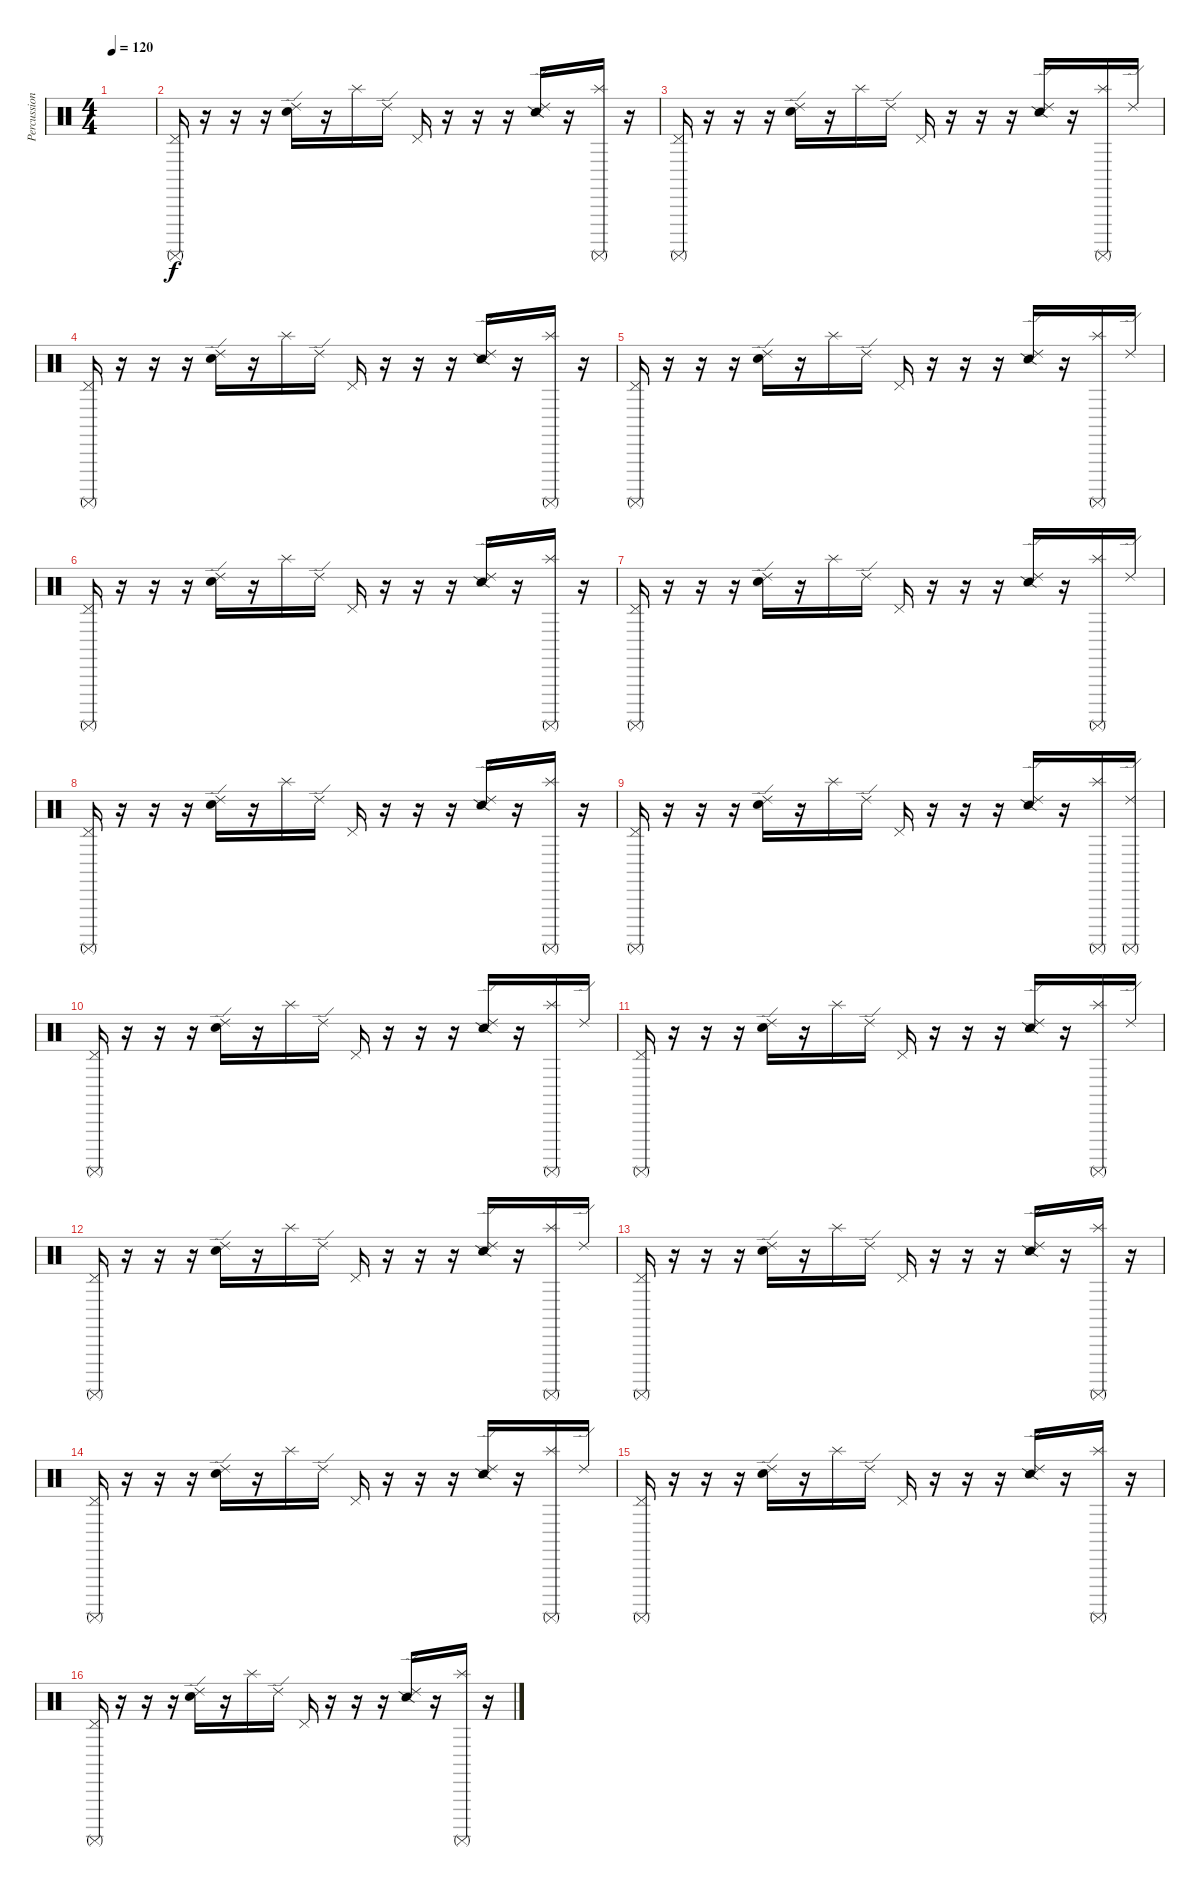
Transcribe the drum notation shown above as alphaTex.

\track ("Percussions" "Percussion") {instrument percussion}
\staff {score}
\articulation defaults
\ts (4 4)
\tempo 120
\clef neutral
\ks c
|
("Surdo (mute)" "Pedal Hi-Hat (hit)").16 r.16 r.16 r.16 ("Metronome (bell)" "Ride (edge) 2").16 r.16 "Splash (hit)".16 "Ride (edge) 2".16 "Pedal Hi-Hat (hit)".16 r.16 r.16 r.16 ("Snare (side stick) 2" "Ride (edge) 2").16 r.16 ("Surdo (mute)" "Splash (hit)").16 r.16 |
("Surdo (mute)" "Pedal Hi-Hat (hit)").16 r.16 r.16 r.16 ("Metronome (bell)" "Ride (edge) 2").16 r.16 "Splash (hit)".16 "Ride (edge) 2".16 "Pedal Hi-Hat (hit)".16 r.16 r.16 r.16 ("Snare (side stick) 2" "Ride (edge) 2").16 r.16 ("Surdo (mute)" "Splash (hit)").16 "Ride (edge) 2".16 |
("Surdo (mute)" "Pedal Hi-Hat (hit)").16 r.16 r.16 r.16 ("Metronome (bell)" "Ride (edge) 2").16 r.16 "Splash (hit)".16 "Ride (edge) 2".16 "Pedal Hi-Hat (hit)".16 r.16 r.16 r.16 ("Snare (side stick) 2" "Ride (edge) 2").16 r.16 ("Surdo (mute)" "Splash (hit)").16 r.16 |
("Surdo (mute)" "Pedal Hi-Hat (hit)").16 r.16 r.16 r.16 ("Metronome (bell)" "Ride (edge) 2").16 r.16 "Splash (hit)".16 "Ride (edge) 2".16 "Pedal Hi-Hat (hit)".16 r.16 r.16 r.16 ("Snare (side stick) 2" "Ride (edge) 2").16 r.16 ("Surdo (mute)" "Splash (hit)").16 "Ride (edge) 2".16 |
("Surdo (mute)" "Pedal Hi-Hat (hit)").16 r.16 r.16 r.16 ("Metronome (bell)" "Ride (edge) 2").16 r.16 "Splash (hit)".16 "Ride (edge) 2".16 "Pedal Hi-Hat (hit)".16 r.16 r.16 r.16 ("Snare (side stick) 2" "Ride (edge) 2").16 r.16 ("Surdo (mute)" "Splash (hit)").16 r.16 |
("Surdo (mute)" "Pedal Hi-Hat (hit)").16 r.16 r.16 r.16 ("Metronome (bell)" "Ride (edge) 2").16 r.16 "Splash (hit)".16 "Ride (edge) 2".16 "Pedal Hi-Hat (hit)".16 r.16 r.16 r.16 ("Snare (side stick) 2" "Ride (edge) 2").16 r.16 ("Surdo (mute)" "Splash (hit)").16 "Ride (edge) 2".16 |
("Surdo (mute)" "Pedal Hi-Hat (hit)").16 r.16 r.16 r.16 ("Metronome (bell)" "Ride (edge) 2").16 r.16 "Splash (hit)".16 "Ride (edge) 2".16 "Pedal Hi-Hat (hit)".16 r.16 r.16 r.16 ("Snare (side stick) 2" "Ride (edge) 2").16 r.16 ("Surdo (mute)" "Splash (hit)").16 r.16 |
("Surdo (mute)" "Pedal Hi-Hat (hit)").16 r.16 r.16 r.16 ("Metronome (bell)" "Ride (edge) 2").16 r.16 "Splash (hit)".16 "Ride (edge) 2".16 "Pedal Hi-Hat (hit)".16 r.16 r.16 r.16 ("Snare (side stick) 2" "Ride (edge) 2").16 r.16 ("Surdo (mute)" "Splash (hit)").16 ("Surdo (mute)" "Ride (edge) 2").16 |
("Surdo (mute)" "Pedal Hi-Hat (hit)").16 r.16 r.16 r.16 ("Metronome (bell)" "Ride (edge) 2").16 r.16 "Splash (hit)".16 "Ride (edge) 2".16 "Pedal Hi-Hat (hit)".16 r.16 r.16 r.16 ("Snare (side stick) 2" "Ride (edge) 2").16 r.16 ("Surdo (mute)" "Splash (hit)").16 "Ride (edge) 2".16 |
("Surdo (mute)" "Pedal Hi-Hat (hit)").16 r.16 r.16 r.16 ("Metronome (bell)" "Ride (edge) 2").16 r.16 "Splash (hit)".16 "Ride (edge) 2".16 "Pedal Hi-Hat (hit)".16 r.16 r.16 r.16 ("Snare (side stick) 2" "Ride (edge) 2").16 r.16 ("Surdo (mute)" "Splash (hit)").16 "Ride (edge) 2".16 |
("Surdo (mute)" "Pedal Hi-Hat (hit)").16 r.16 r.16 r.16 ("Metronome (bell)" "Ride (edge) 2").16 r.16 "Splash (hit)".16 "Ride (edge) 2".16 "Pedal Hi-Hat (hit)".16 r.16 r.16 r.16 ("Snare (side stick) 2" "Ride (edge) 2").16 r.16 ("Surdo (mute)" "Splash (hit)").16 "Ride (edge) 2".16 |
("Surdo (mute)" "Pedal Hi-Hat (hit)").16 r.16 r.16 r.16 ("Metronome (bell)" "Ride (edge) 2").16 r.16 "Splash (hit)".16 "Ride (edge) 2".16 "Pedal Hi-Hat (hit)".16 r.16 r.16 r.16 ("Snare (side stick) 2" "Ride (edge) 2").16 r.16 ("Surdo (mute)" "Splash (hit)").16 r.16 |
("Surdo (mute)" "Pedal Hi-Hat (hit)").16 r.16 r.16 r.16 ("Metronome (bell)" "Ride (edge) 2").16 r.16 "Splash (hit)".16 "Ride (edge) 2".16 "Pedal Hi-Hat (hit)".16 r.16 r.16 r.16 ("Snare (side stick) 2" "Ride (edge) 2").16 r.16 ("Surdo (mute)" "Splash (hit)").16 "Ride (edge) 2".16 |
("Surdo (mute)" "Pedal Hi-Hat (hit)").16 r.16 r.16 r.16 ("Metronome (bell)" "Ride (edge) 2").16 r.16 "Splash (hit)".16 "Ride (edge) 2".16 "Pedal Hi-Hat (hit)".16 r.16 r.16 r.16 ("Snare (side stick) 2" "Ride (edge) 2").16 r.16 ("Surdo (mute)" "Splash (hit)").16 r.16 |
("Surdo (mute)" "Pedal Hi-Hat (hit)").16 r.16 r.16 r.16 ("Metronome (bell)" "Ride (edge) 2").16 r.16 "Splash (hit)".16 "Ride (edge) 2".16 "Pedal Hi-Hat (hit)".16 r.16 r.16 r.16 ("Snare (side stick) 2" "Ride (edge) 2").16 r.16 ("Surdo (mute)" "Splash (hit)").16 r.16
